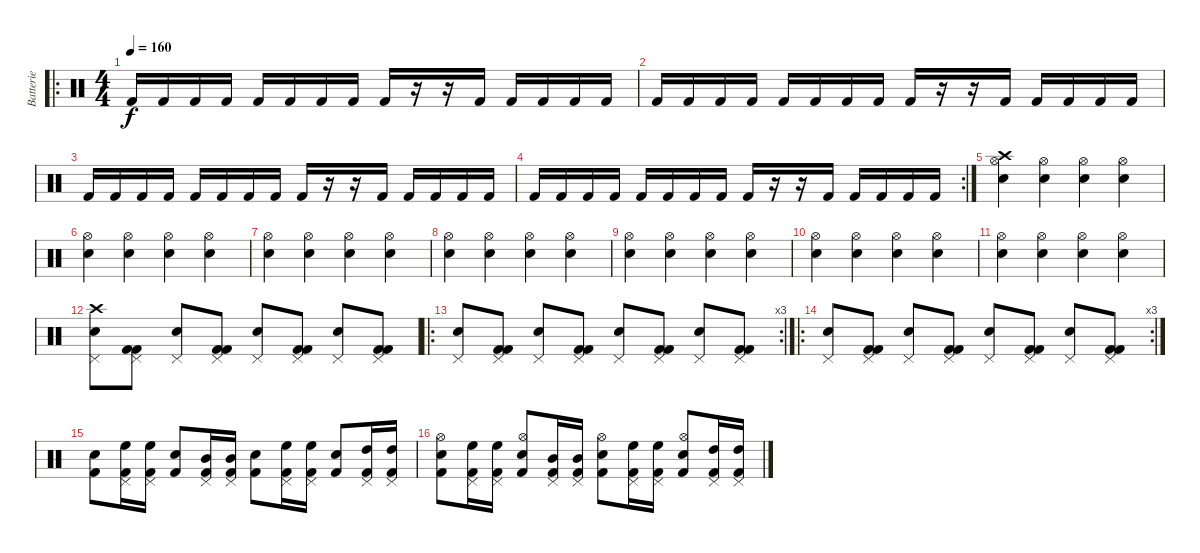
\track ("Batterie" "Batterie") {instrument percussion}
\staff {score}
\articulation defaults
\ro
\ts (4 4)
\tempo 160
\clef neutral
\ks c "Kick (hit) 2".16{dy f} "Kick (hit) 2".16 "Kick (hit) 2".16 "Kick (hit) 2".16 "Kick (hit) 2".16 "Kick (hit) 2".16 "Kick (hit) 2".16 "Kick (hit) 2".16 "Kick (hit) 2".16
r.16 r.16 "Kick (hit) 2".16 "Kick (hit) 2".16 "Kick (hit) 2".16 "Kick (hit) 2".16 "Kick (hit) 2".16 |
"Kick (hit) 2".16 "Kick (hit) 2".16 "Kick (hit) 2".16 "Kick (hit) 2".16 "Kick (hit) 2".16 "Kick (hit) 2".16 "Kick (hit) 2".16 "Kick (hit) 2".16 "Kick (hit) 2".16 r.16 r.16 "Kick (hit) 2".16 "Kick (hit) 2".16 "Kick (hit) 2".16 "Kick (hit) 2".16 "Kick (hit) 2".16 |
"Kick (hit) 2".16 "Kick (hit) 2".16 "Kick (hit) 2".16 "Kick (hit) 2".16 "Kick (hit) 2".16 "Kick (hit) 2".16 "Kick (hit) 2".16 "Kick (hit) 2".16 "Kick (hit) 2".16 r.16 r.16 "Kick (hit) 2".16 "Kick (hit) 2".16 "Kick (hit) 2".16 "Kick (hit) 2".16 "Kick (hit) 2".16 |
\rc 2 "Kick (hit) 2".16 "Kick (hit) 2".16 "Kick (hit) 2".16 "Kick (hit) 2".16 "Kick (hit) 2".16 "Kick (hit) 2".16 "Kick (hit) 2".16 "Kick (hit) 2".16 "Kick (hit) 2".16
r.16 r.16 "Kick (hit) 2".16 "Kick (hit) 2".16 "Kick (hit) 2".16 "Kick (hit) 2".16 "Kick (hit) 2".16 |
("Crash high (hit)" "Hi-Hat (open)" "Snare (hit) 2").4 ("Hi-Hat (open)" "Snare (hit) 2").4 ("Hi-Hat (open)" "Snare (hit) 2").4 ("Hi-Hat (open)" "Snare (hit) 2").4 |
("Hi-Hat (open)" "Snare (hit) 2").4 ("Hi-Hat (open)" "Snare (hit) 2").4 ("Hi-Hat (open)" "Snare (hit) 2").4 ("Hi-Hat (open)" "Snare (hit) 2").4 |
("Hi-Hat (open)" "Snare (hit) 2").4 ("Hi-Hat (open)" "Snare (hit) 2").4 ("Hi-Hat (open)" "Snare (hit) 2").4 ("Hi-Hat (open)" "Snare (hit) 2").4 |
("Hi-Hat (open)" "Snare (hit) 2").4 ("Hi-Hat (open)" "Snare (hit) 2").4 ("Hi-Hat (open)" "Snare (hit) 2").4 ("Hi-Hat (open)" "Snare (hit) 2").4 |
("Hi-Hat (open)" "Snare (hit) 2").4 ("Hi-Hat (open)" "Snare (hit) 2").4 ("Hi-Hat (open)" "Snare (hit) 2").4 ("Hi-Hat (open)" "Snare (hit) 2").4 |
("Hi-Hat (open)" "Snare (hit) 2").4 ("Hi-Hat (open)" "Snare (hit) 2").4 ("Hi-Hat (open)" "Snare (hit) 2").4 ("Hi-Hat (open)" "Snare (hit) 2").4 |
("Hi-Hat (open)" "Snare (hit) 2").4 ("Hi-Hat (open)" "Snare (hit) 2").4 ("Hi-Hat (open)" "Snare (hit) 2").4 ("Hi-Hat (open)" "Snare (hit) 2").4 |
("Crash high (hit)" "Pedal Hi-Hat (hit)" "Snare (hit) 2").8 ("Kick (hit) 2" "Pedal Hi-Hat (hit)" "Kick (hit) 2").8 ("Pedal Hi-Hat (hit)" "Snare (hit) 2").8 ("Kick (hit) 2" "Pedal Hi-Hat (hit)" "Kick (hit) 2").8 ("Pedal Hi-Hat (hit)" "Snare (hit) 2").8 ("Kick (hit) 2" "Pedal Hi-Hat (hit)" "Kick (hit) 2").8 ("Pedal Hi-Hat (hit)" "Snare (hit) 2").8 ("Kick (hit) 2" "Pedal Hi-Hat (hit)" "Kick (hit) 2").8 |
\ro
\rc 3
("Pedal Hi-Hat (hit)" "Snare (hit) 2").8 ("Kick (hit) 2" "Pedal Hi-Hat (hit)" "Kick (hit) 2").8 ("Pedal Hi-Hat (hit)" "Snare (hit) 2").8 ("Kick (hit) 2" "Pedal Hi-Hat (hit)" "Kick (hit) 2").8 ("Pedal Hi-Hat (hit)" "Snare (hit) 2").8 ("Kick (hit) 2" "Pedal Hi-Hat (hit)" "Kick (hit) 2").8 ("Pedal Hi-Hat (hit)" "Snare (hit) 2").8 ("Kick (hit) 2" "Pedal Hi-Hat (hit)" "Kick (hit) 2").8 |
\ro
\rc 3
("Pedal Hi-Hat (hit)" "Snare (hit) 2").8 ("Kick (hit) 2" "Pedal Hi-Hat (hit)" "Kick (hit) 2").8 ("Pedal Hi-Hat (hit)" "Snare (hit) 2").8 ("Kick (hit) 2" "Pedal Hi-Hat (hit)" "Kick (hit) 2").8 ("Pedal Hi-Hat (hit)" "Snare (hit) 2").8 ("Kick (hit) 2" "Pedal Hi-Hat (hit)" "Kick (hit) 2").8 ("Pedal Hi-Hat (hit)" "Snare (hit) 2").8 ("Kick (hit) 2" "Pedal Hi-Hat (hit)" "Kick (hit) 2").8 |
("Snare (hit) 2" "Kick (hit) 2").8 ("Pedal Hi-Hat (hit)" "High Floor Tom (hit)" "Kick (hit) 2").16 ("Pedal Hi-Hat (hit)" "High Floor Tom (hit)" "Kick (hit) 2").16 ("Snare (hit) 2" "Kick (hit) 2").8 ("Pedal Hi-Hat (hit)" "Mid Tom (hit)" "Kick (hit) 2").16 ("Pedal Hi-Hat (hit)" "Mid Tom (hit)" "Kick (hit) 2").16 ("Snare (hit) 2" "Kick (hit) 2").8 ("Pedal Hi-Hat (hit)" "High Floor Tom (hit)" "Kick (hit) 2").16 ("Pedal Hi-Hat (hit)" "High Floor Tom (hit)" "Kick (hit) 2").16 ("Snare (hit) 2" "Kick (hit) 2").8 ("Pedal Hi-Hat (hit)" "High Tom (hit)" "Kick (hit) 2").16 ("Pedal Hi-Hat (hit)" "High Tom (hit)" "Kick (hit) 2").16 |
("Hi-Hat (open)" "Snare (hit) 2" "Kick (hit) 2").8 ("Pedal Hi-Hat (hit)" "High Floor Tom (hit)" "Kick (hit) 2").16 ("Pedal Hi-Hat (hit)" "High Floor Tom (hit)" "Kick (hit) 2").16 ("Hi-Hat (open)" "Snare (hit) 2" "Kick (hit) 2").8 ("Pedal Hi-Hat (hit)" "Mid Tom (hit)" "Kick (hit) 2").16 ("Pedal Hi-Hat (hit)" "Mid Tom (hit)" "Kick (hit) 2").16 ("Hi-Hat (open)" "Snare (hit) 2" "Kick (hit) 2").8 ("Pedal Hi-Hat (hit)" "High Floor Tom (hit)" "Kick (hit) 2").16 ("Pedal Hi-Hat (hit)" "High Floor Tom (hit)" "Kick (hit) 2").16 ("Hi-Hat (open)" "Snare (hit) 2" "Kick (hit) 2").8 ("Pedal Hi-Hat (hit)" "High Tom (hit)" "Kick (hit) 2").16 ("Pedal Hi-Hat (hit)" "High Tom (hit)" "Kick (hit) 2").16
